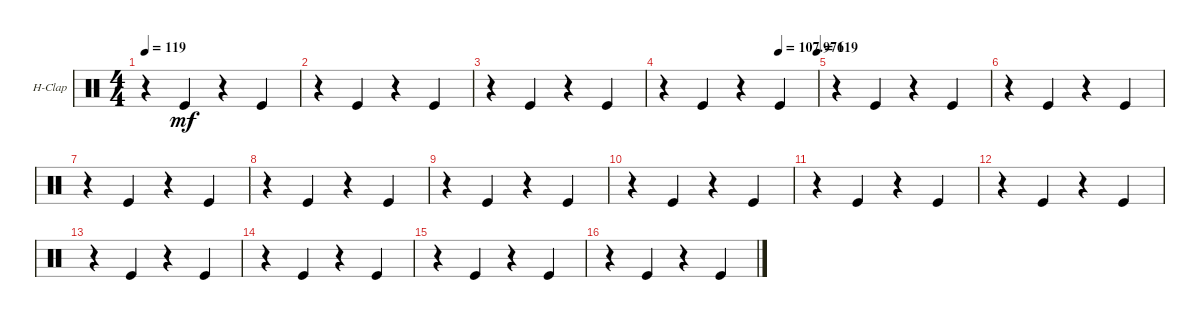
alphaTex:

\defaultSystemsLayout 4
\bracketExtendMode groupsimilarinstruments
\firstSystemTrackNameOrientation horizontal
\otherSystemsTrackNameOrientation horizontal
\track ("Hand Clap" "H-Clap") {instrument percussion}
\staff {score}
\articulation defaults
\ts (4 4)
\tempo 119
\clef neutral
\scale
0.333333
\ks c
r.4{dy mf} "Kick (hit)".4 r.4 "Kick (hit)".4 |
\scale
0.333333 r.4 "Kick (hit)".4 r.4 "Kick (hit)".4 |
r.4 "Kick (hit)".4 r.4 "Kick (hit)".4 |
\tempo (107.976 0.75)
\tempo (119 1)
r.4 "Kick (hit)".4 r.4 "Kick (hit)".4 |
r.4 "Kick (hit)".4 r.4 "Kick (hit)".4 |
r.4 "Kick (hit)".4 r.4 "Kick (hit)".4 |
r.4 "Kick (hit)".4 r.4 "Kick (hit)".4 |
r.4 "Kick (hit)".4 r.4 "Kick (hit)".4 |
r.4 "Kick (hit)".4 r.4 "Kick (hit)".4 |
r.4 "Kick (hit)".4 r.4 "Kick (hit)".4 |
r.4 "Kick (hit)".4 r.4 "Kick (hit)".4 |
r.4 "Kick (hit)".4 r.4 "Kick (hit)".4 |
r.4 "Kick (hit)".4 r.4 "Kick (hit)".4 |
r.4 "Kick (hit)".4 r.4 "Kick (hit)".4 |
r.4 "Kick (hit)".4 r.4 "Kick (hit)".4 |
r.4 "Kick (hit)".4 r.4 "Kick (hit)".4
